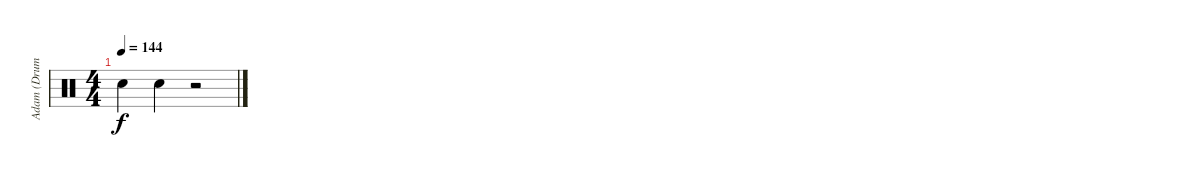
\track ("Adam (Drums)" "Adam (Drum") {instrument percussion}
\staff {score}
\articulation defaults
\ts (4 4)
\tempo 144
\clef neutral
\ks c "Electric Snare (hit)".4{dy f} "Electric Snare (hit)".4
r.2
